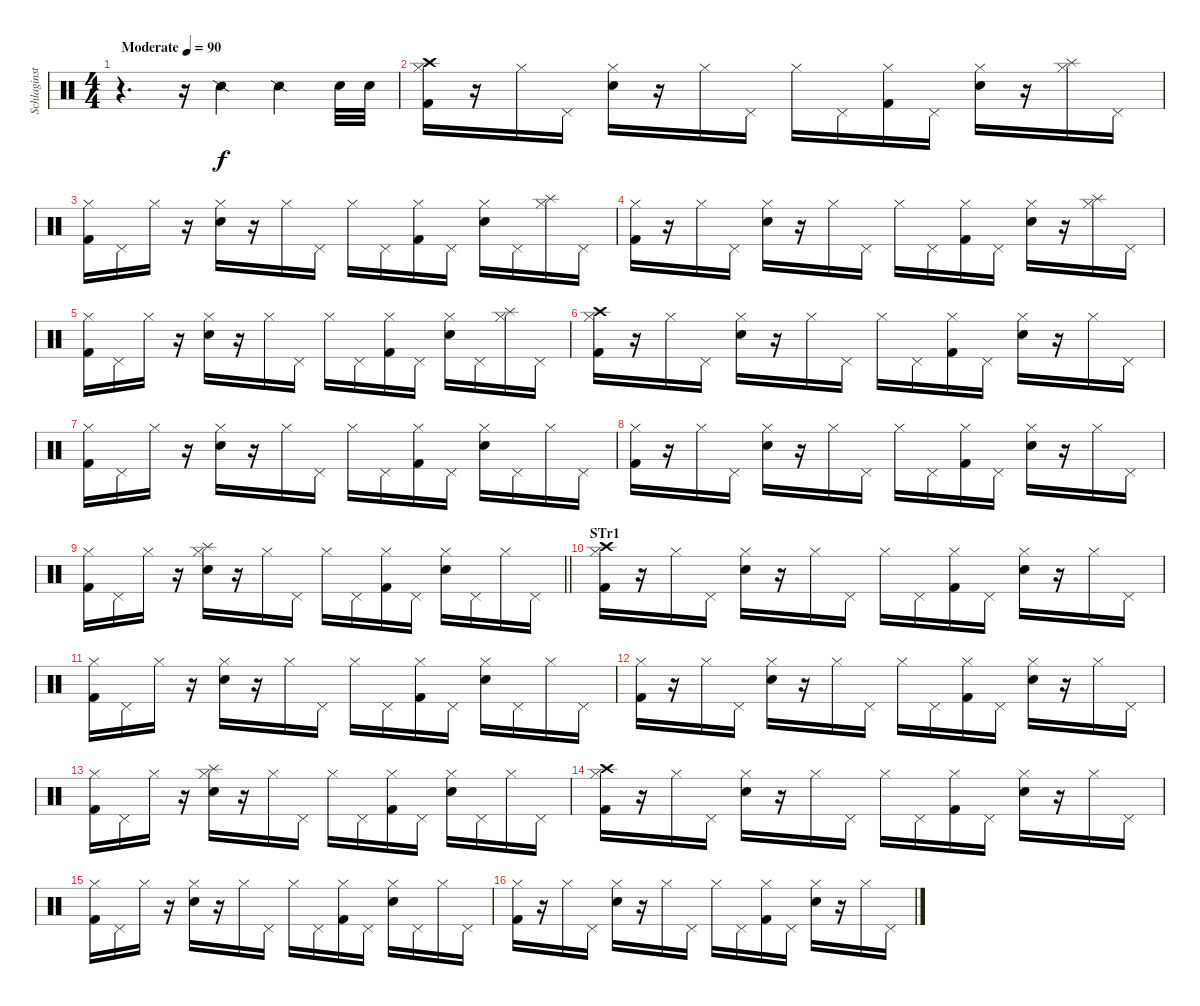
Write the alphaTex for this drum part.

\track ("Schlaginstrumente - Auswahl" "Schlaginst") {instrument percussion}
\staff {score}
\articulation defaults
\ts (4 4)
\tempo (90 "Moderate")
\clef neutral
\ks c
r.4{d dy f} r.16 "Snare (side stick) 2".4 "Snare (side stick) 2".4 "Snare (hit) 2".32 "Snare (hit) 2".32 |
("Kick (hit) 2" "Hi-Hat (closed)" "Crash high (hit)").16 r.16 "Hi-Hat (closed)".16 "Pedal Hi-Hat (hit)".16 ("Snare (hit) 2" "Hi-Hat (closed)").16 r.16 "Hi-Hat (closed)".16 "Pedal Hi-Hat (hit)".16 "Hi-Hat (closed)".16 "Pedal Hi-Hat (hit)".16 ("Kick (hit) 2" "Hi-Hat (closed)").16 "Pedal Hi-Hat (hit)".16 ("Snare (hit) 2" "Hi-Hat (closed)").16 r.16 ("Hi-Hat (closed)" "Splash (hit)").16 "Pedal Hi-Hat (hit)".16 |
("Kick (hit) 2" "Hi-Hat (closed)").16 "Pedal Hi-Hat (hit)".16 "Hi-Hat (closed)".16 r.16 ("Snare (hit) 2" "Hi-Hat (closed)").16 r.16 "Hi-Hat (closed)".16 "Pedal Hi-Hat (hit)".16 "Hi-Hat (closed)".16 "Pedal Hi-Hat (hit)".16 ("Kick (hit) 2" "Hi-Hat (closed)").16 "Pedal Hi-Hat (hit)".16 ("Snare (hit) 2" "Hi-Hat (closed)").16 "Pedal Hi-Hat (hit)".16 ("Hi-Hat (closed)" "Splash (hit)").16 "Pedal Hi-Hat (hit)".16 |
("Kick (hit) 2" "Hi-Hat (closed)").16 r.16 "Hi-Hat (closed)".16 "Pedal Hi-Hat (hit)".16 ("Snare (hit) 2" "Hi-Hat (closed)").16 r.16 "Hi-Hat (closed)".16 "Pedal Hi-Hat (hit)".16 "Hi-Hat (closed)".16 "Pedal Hi-Hat (hit)".16 ("Kick (hit) 2" "Hi-Hat (closed)").16 "Pedal Hi-Hat (hit)".16 ("Snare (hit) 2" "Hi-Hat (closed)").16 r.16 ("Hi-Hat (closed)" "Splash (hit)").16 "Pedal Hi-Hat (hit)".16 |
("Kick (hit) 2" "Hi-Hat (closed)").16 "Pedal Hi-Hat (hit)".16 "Hi-Hat (closed)".16 r.16 ("Snare (hit) 2" "Hi-Hat (closed)").16 r.16 "Hi-Hat (closed)".16 "Pedal Hi-Hat (hit)".16 "Hi-Hat (closed)".16 "Pedal Hi-Hat (hit)".16 ("Kick (hit) 2" "Hi-Hat (closed)").16 "Pedal Hi-Hat (hit)".16 ("Snare (hit) 2" "Hi-Hat (closed)").16 "Pedal Hi-Hat (hit)".16 ("Hi-Hat (closed)" "Splash (hit)").16 "Pedal Hi-Hat (hit)".16 |
("Kick (hit) 2" "Hi-Hat (closed)" "Crash high (hit)").16 r.16 "Hi-Hat (closed)".16 "Pedal Hi-Hat (hit)".16 ("Snare (hit) 2" "Hi-Hat (closed)").16 r.16 "Hi-Hat (closed)".16 "Pedal Hi-Hat (hit)".16 "Hi-Hat (closed)".16 "Pedal Hi-Hat (hit)".16 ("Kick (hit) 2" "Hi-Hat (closed)").16 "Pedal Hi-Hat (hit)".16 ("Snare (hit) 2" "Hi-Hat (closed)").16 r.16 "Hi-Hat (closed)".16 "Pedal Hi-Hat (hit)".16 |
("Kick (hit) 2" "Hi-Hat (closed)").16 "Pedal Hi-Hat (hit)".16 "Hi-Hat (closed)".16 r.16 ("Snare (hit) 2" "Hi-Hat (closed)").16 r.16 "Hi-Hat (closed)".16 "Pedal Hi-Hat (hit)".16 "Hi-Hat (closed)".16 "Pedal Hi-Hat (hit)".16 ("Kick (hit) 2" "Hi-Hat (closed)").16 "Pedal Hi-Hat (hit)".16 ("Snare (hit) 2" "Hi-Hat (closed)").16 "Pedal Hi-Hat (hit)".16 "Hi-Hat (closed)".16 "Pedal Hi-Hat (hit)".16 |
("Kick (hit) 2" "Hi-Hat (closed)").16 r.16 "Hi-Hat (closed)".16 "Pedal Hi-Hat (hit)".16 ("Snare (hit) 2" "Hi-Hat (closed)").16 r.16 "Hi-Hat (closed)".16 "Pedal Hi-Hat (hit)".16 "Hi-Hat (closed)".16 "Pedal Hi-Hat (hit)".16 ("Kick (hit) 2" "Hi-Hat (closed)").16 "Pedal Hi-Hat (hit)".16 ("Snare (hit) 2" "Hi-Hat (closed)").16 r.16 "Hi-Hat (closed)".16 "Pedal Hi-Hat (hit)".16 |
\barLineRight lightlight
("Kick (hit) 2" "Hi-Hat (closed)").16 "Pedal Hi-Hat (hit)".16 "Hi-Hat (closed)".16 r.16 ("Snare (hit) 2" "Hi-Hat (closed)" "Splash (hit)").16 r.16 "Hi-Hat (closed)".16 "Pedal Hi-Hat (hit)".16 "Hi-Hat (closed)".16 "Pedal Hi-Hat (hit)".16 ("Kick (hit) 2" "Hi-Hat (closed)").16 "Pedal Hi-Hat (hit)".16 ("Snare (hit) 2" "Hi-Hat (closed)").16 "Pedal Hi-Hat (hit)".16 "Hi-Hat (closed)".16 "Pedal Hi-Hat (hit)".16 |
\section ("" "STr1")
("Kick (hit) 2" "Hi-Hat (closed)" "Crash high (hit)").16 r.16 "Hi-Hat (closed)".16 "Pedal Hi-Hat (hit)".16 ("Snare (hit) 2" "Hi-Hat (closed)").16 r.16 "Hi-Hat (closed)".16 "Pedal Hi-Hat (hit)".16 "Hi-Hat (closed)".16 "Pedal Hi-Hat (hit)".16 ("Kick (hit) 2" "Hi-Hat (closed)").16 "Pedal Hi-Hat (hit)".16 ("Snare (hit) 2" "Hi-Hat (closed)").16 r.16 "Hi-Hat (closed)".16 "Pedal Hi-Hat (hit)".16 |
("Kick (hit) 2" "Hi-Hat (closed)").16 "Pedal Hi-Hat (hit)".16 "Hi-Hat (closed)".16 r.16 ("Snare (hit) 2" "Hi-Hat (closed)").16 r.16 "Hi-Hat (closed)".16 "Pedal Hi-Hat (hit)".16 "Hi-Hat (closed)".16 "Pedal Hi-Hat (hit)".16 ("Kick (hit) 2" "Hi-Hat (closed)").16 "Pedal Hi-Hat (hit)".16 ("Snare (hit) 2" "Hi-Hat (closed)").16 "Pedal Hi-Hat (hit)".16 "Hi-Hat (closed)".16 "Pedal Hi-Hat (hit)".16 |
("Kick (hit) 2" "Hi-Hat (closed)").16 r.16 "Hi-Hat (closed)".16 "Pedal Hi-Hat (hit)".16 ("Snare (hit) 2" "Hi-Hat (closed)").16 r.16 "Hi-Hat (closed)".16 "Pedal Hi-Hat (hit)".16 "Hi-Hat (closed)".16 "Pedal Hi-Hat (hit)".16 ("Kick (hit) 2" "Hi-Hat (closed)").16 "Pedal Hi-Hat (hit)".16 ("Snare (hit) 2" "Hi-Hat (closed)").16 r.16 "Hi-Hat (closed)".16 "Pedal Hi-Hat (hit)".16 |
("Kick (hit) 2" "Hi-Hat (closed)").16 "Pedal Hi-Hat (hit)".16 "Hi-Hat (closed)".16 r.16 ("Snare (hit) 2" "Hi-Hat (closed)" "Splash (hit)").16 r.16 "Hi-Hat (closed)".16 "Pedal Hi-Hat (hit)".16 "Hi-Hat (closed)".16 "Pedal Hi-Hat (hit)".16 ("Kick (hit) 2" "Hi-Hat (closed)").16 "Pedal Hi-Hat (hit)".16 ("Snare (hit) 2" "Hi-Hat (closed)").16 "Pedal Hi-Hat (hit)".16 "Hi-Hat (closed)".16 "Pedal Hi-Hat (hit)".16 |
("Kick (hit) 2" "Hi-Hat (closed)" "Crash high (hit)").16 r.16 "Hi-Hat (closed)".16 "Pedal Hi-Hat (hit)".16 ("Snare (hit) 2" "Hi-Hat (closed)").16 r.16 "Hi-Hat (closed)".16 "Pedal Hi-Hat (hit)".16 "Hi-Hat (closed)".16 "Pedal Hi-Hat (hit)".16 ("Kick (hit) 2" "Hi-Hat (closed)").16 "Pedal Hi-Hat (hit)".16 ("Snare (hit) 2" "Hi-Hat (closed)").16 r.16 "Hi-Hat (closed)".16 "Pedal Hi-Hat (hit)".16 |
("Kick (hit) 2" "Hi-Hat (closed)").16 "Pedal Hi-Hat (hit)".16 "Hi-Hat (closed)".16 r.16 ("Snare (hit) 2" "Hi-Hat (closed)").16 r.16 "Hi-Hat (closed)".16 "Pedal Hi-Hat (hit)".16 "Hi-Hat (closed)".16 "Pedal Hi-Hat (hit)".16 ("Kick (hit) 2" "Hi-Hat (closed)").16 "Pedal Hi-Hat (hit)".16 ("Snare (hit) 2" "Hi-Hat (closed)").16 "Pedal Hi-Hat (hit)".16 "Hi-Hat (closed)".16 "Pedal Hi-Hat (hit)".16 |
("Kick (hit) 2" "Hi-Hat (closed)").16 r.16 "Hi-Hat (closed)".16 "Pedal Hi-Hat (hit)".16 ("Snare (hit) 2" "Hi-Hat (closed)").16 r.16 "Hi-Hat (closed)".16 "Pedal Hi-Hat (hit)".16 "Hi-Hat (closed)".16 "Pedal Hi-Hat (hit)".16 ("Kick (hit) 2" "Hi-Hat (closed)").16 "Pedal Hi-Hat (hit)".16 ("Snare (hit) 2" "Hi-Hat (closed)").16 r.16 "Hi-Hat (closed)".16 "Pedal Hi-Hat (hit)".16
